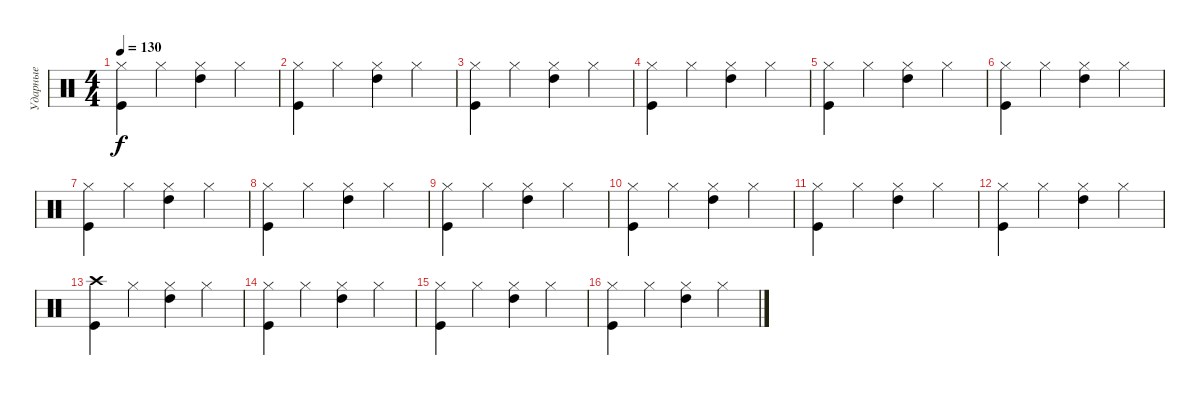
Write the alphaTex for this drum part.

\track ("Ударные" "Ударные") {instrument percussion}
\staff {score}
\articulation defaults
\ts (4 4)
\tempo 130
\clef neutral
\ks c
("Hi-Hat (closed)" "Kick (hit)").4{dy f} "Hi-Hat (closed)".4 ("Hi-Hat (closed)" "High Tom (hit)").4 "Hi-Hat (closed)".4 |
("Hi-Hat (closed)" "Kick (hit)").4 "Hi-Hat (closed)".4 ("Hi-Hat (closed)" "High Tom (hit)").4 "Hi-Hat (closed)".4 |
("Hi-Hat (closed)" "Kick (hit)").4 "Hi-Hat (closed)".4 ("Hi-Hat (closed)" "High Tom (hit)").4 "Hi-Hat (closed)".4 |
("Hi-Hat (closed)" "Kick (hit)").4 "Hi-Hat (closed)".4 ("Hi-Hat (closed)" "High Tom (hit)").4 "Hi-Hat (closed)".4 |
("Hi-Hat (closed)" "Kick (hit)").4 "Hi-Hat (closed)".4 ("Hi-Hat (closed)" "High Tom (hit)").4 "Hi-Hat (closed)".4 |
("Hi-Hat (closed)" "Kick (hit)").4 "Hi-Hat (closed)".4 ("Hi-Hat (closed)" "High Tom (hit)").4 "Hi-Hat (closed)".4 |
("Hi-Hat (closed)" "Kick (hit)").4 "Hi-Hat (closed)".4 ("Hi-Hat (closed)" "High Tom (hit)").4 "Hi-Hat (closed)".4 |
("Hi-Hat (closed)" "Kick (hit)").4 "Hi-Hat (closed)".4 ("Hi-Hat (closed)" "High Tom (hit)").4 "Hi-Hat (closed)".4 |
("Hi-Hat (closed)" "Kick (hit)").4 "Hi-Hat (closed)".4 ("Hi-Hat (closed)" "High Tom (hit)").4 "Hi-Hat (closed)".4 |
("Hi-Hat (closed)" "Kick (hit)").4 "Hi-Hat (closed)".4 ("Hi-Hat (closed)" "High Tom (hit)").4 "Hi-Hat (closed)".4 |
("Hi-Hat (closed)" "Kick (hit)").4 "Hi-Hat (closed)".4 ("Hi-Hat (closed)" "High Tom (hit)").4 "Hi-Hat (closed)".4 |
("Hi-Hat (closed)" "Kick (hit)").4 "Hi-Hat (closed)".4 ("Hi-Hat (closed)" "High Tom (hit)").4 "Hi-Hat (closed)".4 |
("Crash high (hit)" "Kick (hit)").4 "Hi-Hat (closed)".4 ("Hi-Hat (closed)" "High Tom (hit)").4 "Hi-Hat (closed)".4 |
("Hi-Hat (closed)" "Kick (hit)").4 "Hi-Hat (closed)".4 ("Hi-Hat (closed)" "High Tom (hit)").4 "Hi-Hat (closed)".4 |
("Hi-Hat (closed)" "Kick (hit)").4 "Hi-Hat (closed)".4 ("Hi-Hat (closed)" "High Tom (hit)").4 "Hi-Hat (closed)".4 |
("Hi-Hat (closed)" "Kick (hit)").4 "Hi-Hat (closed)".4 ("Hi-Hat (closed)" "High Tom (hit)").4 "Hi-Hat (closed)".4
